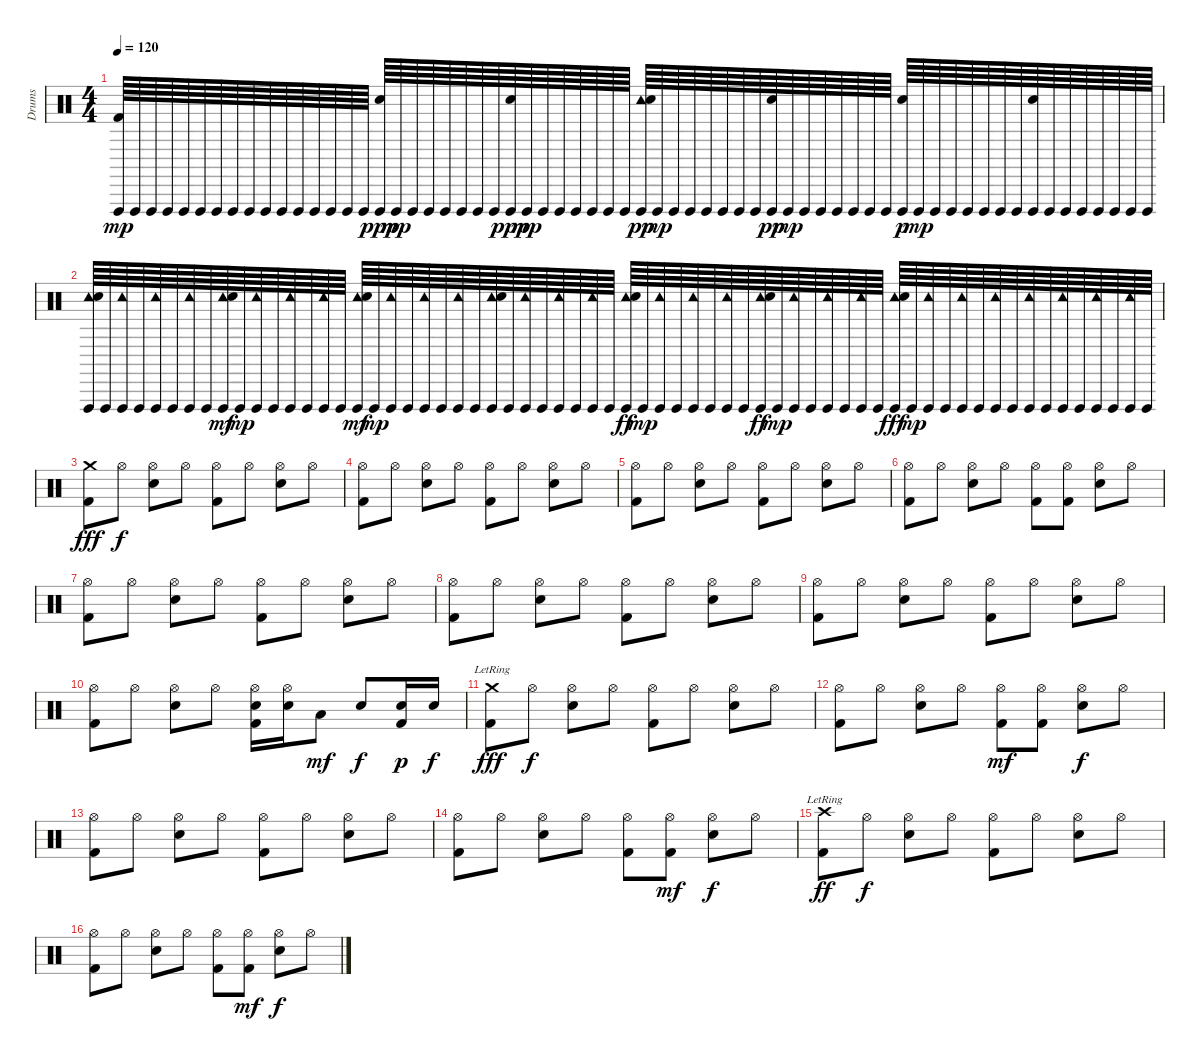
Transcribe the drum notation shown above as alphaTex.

\track ("Drums" "Drums") {instrument percussion}
\staff {score}
\articulation defaults
\ts (4 4)
\tempo 120
\clef neutral
\ks c
("Vibraslap (hit)" "Kick (hit) 2").64{dy mp} "Vibraslap (hit)".64 "Vibraslap (hit)".64 "Vibraslap (hit)".64 "Vibraslap (hit)".64 "Vibraslap (hit)".64 "Vibraslap (hit)".64 "Vibraslap (hit)".64 "Vibraslap (hit)".64 "Vibraslap (hit)".64 "Vibraslap (hit)".64 "Vibraslap (hit)".64 "Vibraslap (hit)".64 "Vibraslap (hit)".64 "Vibraslap (hit)".64 "Vibraslap (hit)".64 ("Vibraslap (hit)" "Electric Snare (hit)").64{dy ppp} "Vibraslap (hit)".64{dy mp} "Vibraslap (hit)".64 "Vibraslap (hit)".64 "Vibraslap (hit)".64 "Vibraslap (hit)".64 "Vibraslap (hit)".64 "Vibraslap (hit)".64 ("Vibraslap (hit)" "Electric Snare (hit)").64{dy ppp} "Vibraslap (hit)".64{dy mp} "Vibraslap (hit)".64 "Vibraslap (hit)".64 "Vibraslap (hit)".64 "Vibraslap (hit)".64 "Vibraslap (hit)".64 "Vibraslap (hit)".64 ("Vibraslap (hit)" "Tambourine (hit)" "Electric Snare (hit)").64{dy pp} "Vibraslap (hit)".64{dy mp} "Vibraslap (hit)".64 "Vibraslap (hit)".64 "Vibraslap (hit)".64 "Vibraslap (hit)".64 "Vibraslap (hit)".64 "Vibraslap (hit)".64 ("Vibraslap (hit)" "Electric Snare (hit)").64{dy pp} "Vibraslap (hit)".64{dy mp} "Vibraslap (hit)".64 "Vibraslap (hit)".64 "Vibraslap (hit)".64 "Vibraslap (hit)".64 "Vibraslap (hit)".64 "Vibraslap (hit)".64 ("Vibraslap (hit)" "Electric Snare (hit)").64{dy p} "Vibraslap (hit)".64{dy mp} "Vibraslap (hit)".64 "Vibraslap (hit)".64 "Vibraslap (hit)".64 "Vibraslap (hit)".64 "Vibraslap (hit)".64 "Vibraslap (hit)".64 ("Vibraslap (hit)" "Electric Snare (hit)").64 "Vibraslap (hit)".64 "Vibraslap (hit)".64 "Vibraslap (hit)".64 "Vibraslap (hit)".64 "Vibraslap (hit)".64 "Vibraslap (hit)".64 "Vibraslap (hit)".64 |
("Vibraslap (hit)" "Tambourine (hit)" "Electric Snare (hit)").64 "Vibraslap (hit)".64 ("Vibraslap (hit)" "Tambourine (hit)").64 "Vibraslap (hit)".64 ("Vibraslap (hit)" "Tambourine (hit)").64 "Vibraslap (hit)".64 ("Vibraslap (hit)" "Tambourine (hit)").64 "Vibraslap (hit)".64 ("Vibraslap (hit)" "Tambourine (hit)" "Electric Snare (hit)").64{dy mf} "Vibraslap (hit)".64{dy mp} ("Vibraslap (hit)" "Tambourine (hit)").64 "Vibraslap (hit)".64 ("Vibraslap (hit)" "Tambourine (hit)").64 "Vibraslap (hit)".64 ("Vibraslap (hit)" "Tambourine (hit)").64 "Vibraslap (hit)".64 ("Vibraslap (hit)" "Tambourine (hit)" "Electric Snare (hit)").64{dy mf} "Vibraslap (hit)".64{dy mp} ("Vibraslap (hit)" "Tambourine (hit)").64 "Vibraslap (hit)".64 ("Vibraslap (hit)" "Tambourine (hit)").64 "Vibraslap (hit)".64 ("Vibraslap (hit)" "Tambourine (hit)").64 "Vibraslap (hit)".64 ("Vibraslap (hit)" "Tambourine (hit)" "Electric Snare (hit)").64 "Vibraslap (hit)".64 ("Vibraslap (hit)" "Tambourine (hit)").64 "Vibraslap (hit)".64 ("Vibraslap (hit)" "Tambourine (hit)").64 "Vibraslap (hit)".64 ("Vibraslap (hit)" "Tambourine (hit)").64 "Vibraslap (hit)".64 ("Vibraslap (hit)" "Tambourine (hit)" "Electric Snare (hit)").64{dy ff} "Vibraslap (hit)".64{dy mp} ("Vibraslap (hit)" "Tambourine (hit)").64 "Vibraslap (hit)".64 ("Vibraslap (hit)" "Tambourine (hit)").64 "Vibraslap (hit)".64 ("Vibraslap (hit)" "Tambourine (hit)").64 "Vibraslap (hit)".64 ("Vibraslap (hit)" "Tambourine (hit)" "Electric Snare (hit)").64{dy ff} "Vibraslap (hit)".64{dy mp} ("Vibraslap (hit)" "Tambourine (hit)").64 "Vibraslap (hit)".64 ("Vibraslap (hit)" "Tambourine (hit)").64 "Vibraslap (hit)".64 ("Vibraslap (hit)" "Tambourine (hit)").64 "Vibraslap (hit)".64 ("Vibraslap (hit)" "Tambourine (hit)" "Electric Snare (hit)").64{dy fff} "Vibraslap (hit)".64{dy mp} ("Vibraslap (hit)" "Tambourine (hit)").64 "Vibraslap (hit)".64 ("Vibraslap (hit)" "Tambourine (hit)").64 "Vibraslap (hit)".64 ("Vibraslap (hit)" "Tambourine (hit)").64 "Vibraslap (hit)".64 ("Vibraslap (hit)" "Tambourine (hit)").64 "Vibraslap (hit)".64 ("Vibraslap (hit)" "Tambourine (hit)").64 "Vibraslap (hit)".64 ("Vibraslap (hit)" "Tambourine (hit)").64 "Vibraslap (hit)".64 ("Vibraslap (hit)" "Tambourine (hit)").64 "Vibraslap (hit)".64 |
("Crash medium (hit)" "Kick (hit) 2").8{dy fff} "Hi-Hat (open)".8{dy f} ("Hi-Hat (open)" "Electric Snare (hit)").8 "Hi-Hat (open)".8 ("Hi-Hat (open)" "Kick (hit) 2").8 "Hi-Hat (open)".8 ("Hi-Hat (open)" "Electric Snare (hit)").8 "Hi-Hat (open)".8 |
("Hi-Hat (open)" "Kick (hit) 2").8 "Hi-Hat (open)".8 ("Hi-Hat (open)" "Electric Snare (hit)").8 "Hi-Hat (open)".8 ("Hi-Hat (open)" "Kick (hit) 2").8 "Hi-Hat (open)".8 ("Hi-Hat (open)" "Electric Snare (hit)").8 "Hi-Hat (open)".8 |
("Hi-Hat (open)" "Kick (hit) 2").8 "Hi-Hat (open)".8 ("Hi-Hat (open)" "Electric Snare (hit)").8 "Hi-Hat (open)".8 ("Hi-Hat (open)" "Kick (hit) 2").8 "Hi-Hat (open)".8 ("Hi-Hat (open)" "Electric Snare (hit)").8 "Hi-Hat (open)".8 |
("Hi-Hat (open)" "Kick (hit) 2").8 "Hi-Hat (open)".8 ("Hi-Hat (open)" "Electric Snare (hit)").8 "Hi-Hat (open)".8 ("Hi-Hat (open)" "Kick (hit) 2").8 ("Hi-Hat (open)" "Kick (hit) 2").8 ("Hi-Hat (open)" "Electric Snare (hit)").8 "Hi-Hat (open)".8 |
("Hi-Hat (open)" "Kick (hit) 2").8 "Hi-Hat (open)".8 ("Hi-Hat (open)" "Electric Snare (hit)").8 "Hi-Hat (open)".8 ("Hi-Hat (open)" "Kick (hit) 2").8 "Hi-Hat (open)".8 ("Hi-Hat (open)" "Electric Snare (hit)").8 "Hi-Hat (open)".8 |
("Hi-Hat (open)" "Kick (hit) 2").8 "Hi-Hat (open)".8 ("Hi-Hat (open)" "Electric Snare (hit)").8 "Hi-Hat (open)".8 ("Hi-Hat (open)" "Kick (hit) 2").8 "Hi-Hat (open)".8 ("Hi-Hat (open)" "Electric Snare (hit)").8 "Hi-Hat (open)".8 |
("Hi-Hat (open)" "Kick (hit) 2").8 "Hi-Hat (open)".8 ("Hi-Hat (open)" "Electric Snare (hit)").8 "Hi-Hat (open)".8 ("Hi-Hat (open)" "Kick (hit) 2").8 "Hi-Hat (open)".8 ("Hi-Hat (open)" "Electric Snare (hit)").8 "Hi-Hat (open)".8 |
("Hi-Hat (open)" "Kick (hit) 2").8 "Hi-Hat (open)".8 ("Hi-Hat (open)" "Electric Snare (hit)").8 "Hi-Hat (open)".8 ("Hi-Hat (open)" "Electric Snare (hit)" "Kick (hit) 2").16 ("Hi-Hat (open)" "Electric Snare (hit)").16 "Low Tom (hit)".8{dy mf} "Electric Snare (hit)".8{dy f} ("Electric Snare (hit)" "Kick (hit) 2").16{dy p} "Electric Snare (hit)".16{dy f} |
("Crash medium (hit)"{lr} "Kick (hit) 2").8{dy fff} "Hi-Hat (open)".8{dy f} ("Hi-Hat (open)" "Electric Snare (hit)").8 "Hi-Hat (open)".8 ("Hi-Hat (open)" "Kick (hit) 2").8 "Hi-Hat (open)".8 ("Hi-Hat (open)" "Electric Snare (hit)").8 "Hi-Hat (open)".8 |
("Hi-Hat (open)" "Kick (hit) 2").8 "Hi-Hat (open)".8 ("Hi-Hat (open)" "Electric Snare (hit)").8 "Hi-Hat (open)".8 ("Hi-Hat (open)" "Kick (hit) 2").8{dy mf} ("Hi-Hat (open)" "Kick (hit) 2").8 ("Hi-Hat (open)" "Electric Snare (hit)").8{dy f} "Hi-Hat (open)".8 |
("Hi-Hat (open)" "Kick (hit) 2").8 "Hi-Hat (open)".8 ("Hi-Hat (open)" "Electric Snare (hit)").8 "Hi-Hat (open)".8 ("Hi-Hat (open)" "Kick (hit) 2").8 "Hi-Hat (open)".8 ("Hi-Hat (open)" "Electric Snare (hit)").8 "Hi-Hat (open)".8 |
("Hi-Hat (open)" "Kick (hit) 2").8 "Hi-Hat (open)".8 ("Hi-Hat (open)" "Electric Snare (hit)").8 "Hi-Hat (open)".8 ("Hi-Hat (open)" "Kick (hit) 2").8 ("Hi-Hat (open)" "Kick (hit) 2").8{dy mf} ("Hi-Hat (open)" "Electric Snare (hit)").8{dy f} "Hi-Hat (open)".8 |
("Crash high (hit)"{lr} "Kick (hit) 2").8{dy ff} "Hi-Hat (open)".8{dy f} ("Hi-Hat (open)" "Electric Snare (hit)").8 "Hi-Hat (open)".8 ("Hi-Hat (open)" "Kick (hit) 2").8 "Hi-Hat (open)".8 ("Hi-Hat (open)" "Electric Snare (hit)").8 "Hi-Hat (open)".8 |
("Hi-Hat (open)" "Kick (hit) 2").8 "Hi-Hat (open)".8 ("Hi-Hat (open)" "Electric Snare (hit)").8 "Hi-Hat (open)".8 ("Hi-Hat (open)" "Kick (hit) 2").8 ("Hi-Hat (open)" "Kick (hit) 2").8{dy mf} ("Hi-Hat (open)" "Electric Snare (hit)").8{dy f} "Hi-Hat (open)".8
